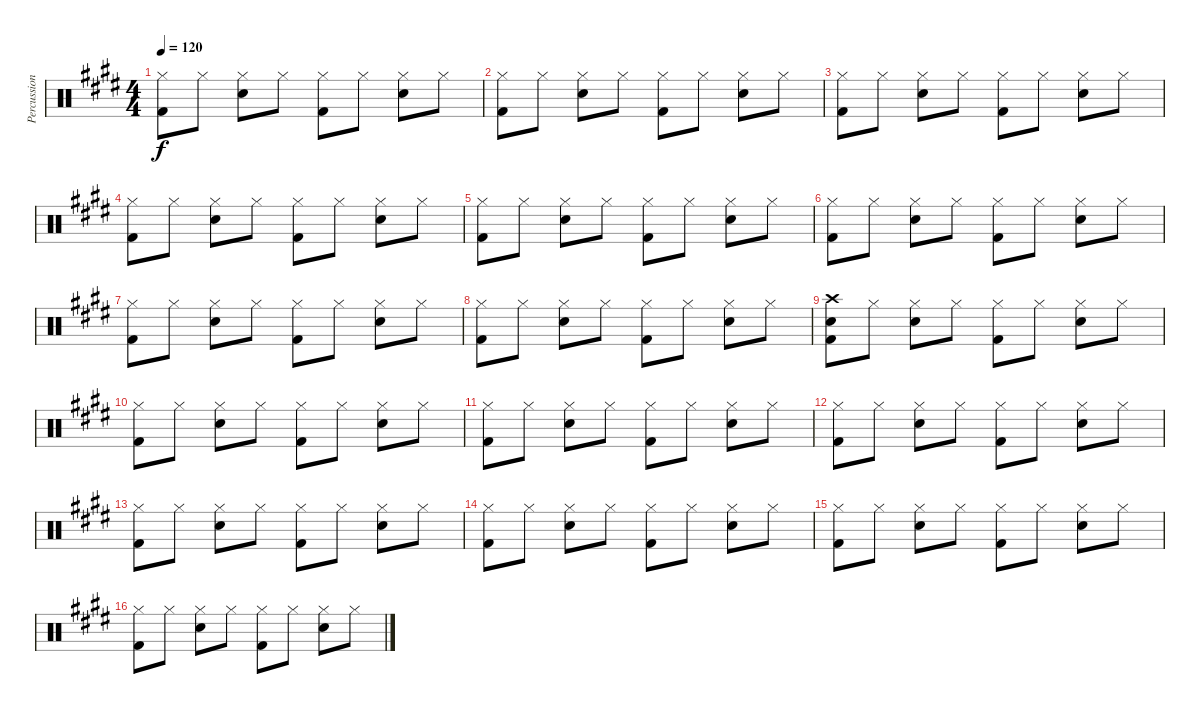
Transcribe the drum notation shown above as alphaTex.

\track ("Percussion" "Percussion") {instrument percussion}
\staff {score}
\articulation defaults
\ts (4 4)
\tempo 120
\clef neutral
\ks e
("Hi-Hat (closed)" "Kick (hit) 2").8{dy f} "Hi-Hat (closed)".8 ("Hi-Hat (closed)" "Snare (hit) 2").8 "Hi-Hat (closed)".8 ("Hi-Hat (closed)" "Kick (hit) 2").8 "Hi-Hat (closed)".8 ("Hi-Hat (closed)" "Snare (hit) 2").8 "Hi-Hat (closed)".8 |
("Hi-Hat (closed)" "Kick (hit) 2").8 "Hi-Hat (closed)".8 ("Hi-Hat (closed)" "Snare (hit) 2").8 "Hi-Hat (closed)".8 ("Hi-Hat (closed)" "Kick (hit) 2").8 "Hi-Hat (closed)".8 ("Hi-Hat (closed)" "Snare (hit) 2").8 "Hi-Hat (closed)".8 |
("Hi-Hat (closed)" "Kick (hit) 2").8 "Hi-Hat (closed)".8 ("Hi-Hat (closed)" "Snare (hit) 2").8 "Hi-Hat (closed)".8 ("Hi-Hat (closed)" "Kick (hit) 2").8 "Hi-Hat (closed)".8 ("Hi-Hat (closed)" "Snare (hit) 2").8 "Hi-Hat (closed)".8 |
("Hi-Hat (closed)" "Kick (hit) 2").8 "Hi-Hat (closed)".8 ("Hi-Hat (closed)" "Snare (hit) 2").8 "Hi-Hat (closed)".8 ("Hi-Hat (closed)" "Kick (hit) 2").8 "Hi-Hat (closed)".8 ("Hi-Hat (closed)" "Snare (hit) 2").8 "Hi-Hat (closed)".8 |
("Hi-Hat (closed)" "Kick (hit) 2").8 "Hi-Hat (closed)".8 ("Hi-Hat (closed)" "Snare (hit) 2").8 "Hi-Hat (closed)".8 ("Hi-Hat (closed)" "Kick (hit) 2").8 "Hi-Hat (closed)".8 ("Hi-Hat (closed)" "Snare (hit) 2").8 "Hi-Hat (closed)".8 |
("Hi-Hat (closed)" "Kick (hit) 2").8 "Hi-Hat (closed)".8 ("Hi-Hat (closed)" "Snare (hit) 2").8 "Hi-Hat (closed)".8 ("Hi-Hat (closed)" "Kick (hit) 2").8 "Hi-Hat (closed)".8 ("Hi-Hat (closed)" "Snare (hit) 2").8 "Hi-Hat (closed)".8 |
("Hi-Hat (closed)" "Kick (hit) 2").8 "Hi-Hat (closed)".8 ("Hi-Hat (closed)" "Snare (hit) 2").8 "Hi-Hat (closed)".8 ("Hi-Hat (closed)" "Kick (hit) 2").8 "Hi-Hat (closed)".8 ("Hi-Hat (closed)" "Snare (hit) 2").8 "Hi-Hat (closed)".8 |
("Hi-Hat (closed)" "Kick (hit) 2").8 "Hi-Hat (closed)".8 ("Hi-Hat (closed)" "Snare (hit) 2").8 "Hi-Hat (closed)".8 ("Hi-Hat (closed)" "Kick (hit) 2").8 "Hi-Hat (closed)".8 ("Hi-Hat (closed)" "Snare (hit) 2").8 "Hi-Hat (closed)".8 |
("Crash high (hit)" "Snare (hit) 2" "Kick (hit) 2").8 "Hi-Hat (closed)".8 ("Hi-Hat (closed)" "Snare (hit) 2").8 "Hi-Hat (closed)".8 ("Hi-Hat (closed)" "Kick (hit) 2").8 "Hi-Hat (closed)".8 ("Hi-Hat (closed)" "Snare (hit) 2").8 "Hi-Hat (closed)".8 |
("Hi-Hat (closed)" "Kick (hit) 2").8 "Hi-Hat (closed)".8 ("Hi-Hat (closed)" "Snare (hit) 2").8 "Hi-Hat (closed)".8 ("Hi-Hat (closed)" "Kick (hit) 2").8 "Hi-Hat (closed)".8 ("Hi-Hat (closed)" "Snare (hit) 2").8 "Hi-Hat (closed)".8 |
("Hi-Hat (closed)" "Kick (hit) 2").8 "Hi-Hat (closed)".8 ("Hi-Hat (closed)" "Snare (hit) 2").8 "Hi-Hat (closed)".8 ("Hi-Hat (closed)" "Kick (hit) 2").8 "Hi-Hat (closed)".8 ("Hi-Hat (closed)" "Snare (hit) 2").8 "Hi-Hat (closed)".8 |
("Hi-Hat (closed)" "Kick (hit) 2").8 "Hi-Hat (closed)".8 ("Hi-Hat (closed)" "Snare (hit) 2").8 "Hi-Hat (closed)".8 ("Hi-Hat (closed)" "Kick (hit) 2").8 "Hi-Hat (closed)".8 ("Hi-Hat (closed)" "Snare (hit) 2").8 "Hi-Hat (closed)".8 |
("Hi-Hat (closed)" "Kick (hit) 2").8 "Hi-Hat (closed)".8 ("Hi-Hat (closed)" "Snare (hit) 2").8 "Hi-Hat (closed)".8 ("Hi-Hat (closed)" "Kick (hit) 2").8 "Hi-Hat (closed)".8 ("Hi-Hat (closed)" "Snare (hit) 2").8 "Hi-Hat (closed)".8 |
("Hi-Hat (closed)" "Kick (hit) 2").8 "Hi-Hat (closed)".8 ("Hi-Hat (closed)" "Snare (hit) 2").8 "Hi-Hat (closed)".8 ("Hi-Hat (closed)" "Kick (hit) 2").8 "Hi-Hat (closed)".8 ("Hi-Hat (closed)" "Snare (hit) 2").8 "Hi-Hat (closed)".8 |
("Hi-Hat (closed)" "Kick (hit) 2").8 "Hi-Hat (closed)".8 ("Hi-Hat (closed)" "Snare (hit) 2").8 "Hi-Hat (closed)".8 ("Hi-Hat (closed)" "Kick (hit) 2").8 "Hi-Hat (closed)".8 ("Hi-Hat (closed)" "Snare (hit) 2").8 "Hi-Hat (closed)".8 |
("Hi-Hat (closed)" "Kick (hit) 2").8 "Hi-Hat (closed)".8 ("Hi-Hat (closed)" "Snare (hit) 2").8 "Hi-Hat (closed)".8 ("Hi-Hat (closed)" "Kick (hit) 2").8 "Hi-Hat (closed)".8 ("Hi-Hat (closed)" "Snare (hit) 2").8 "Hi-Hat (closed)".8
